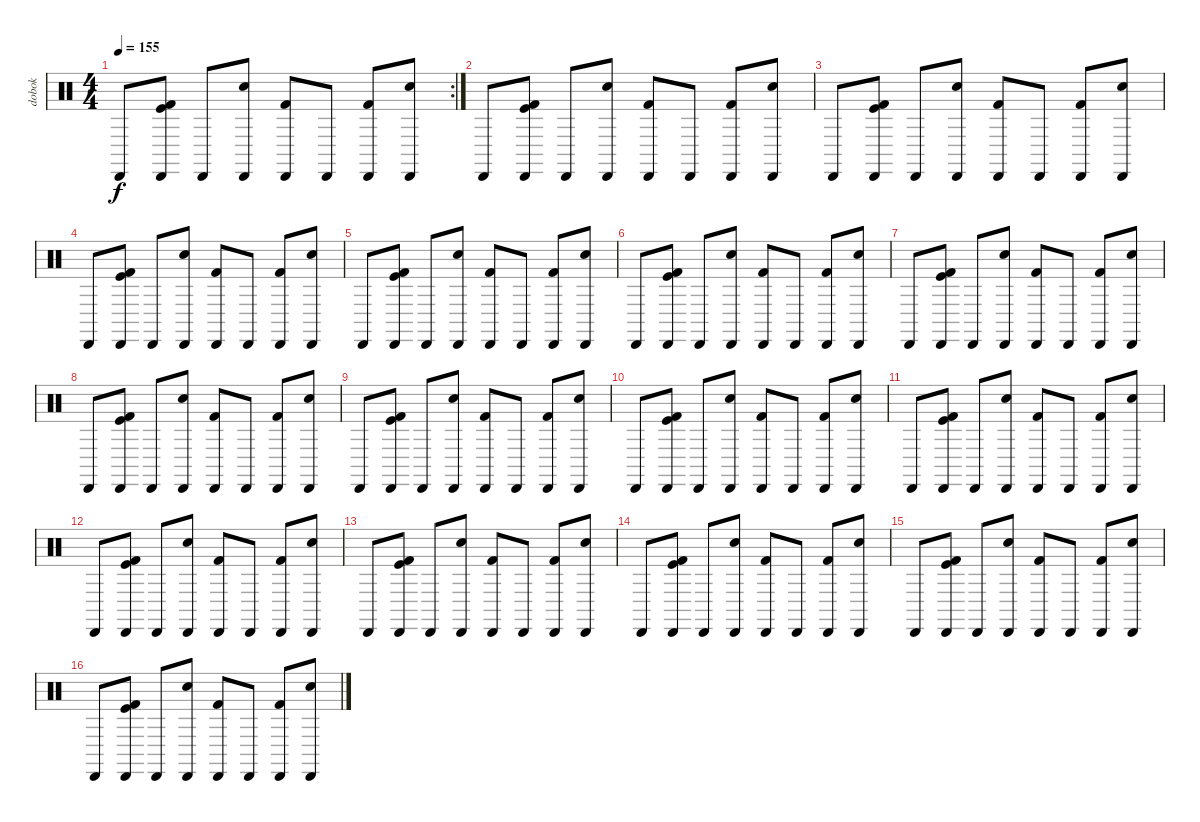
\track ("dobok" "dobok") {instrument percussion}
\staff {score}
\articulation defaults
\rc 2
\ts (4 4)
\tempo 155
\clef neutral
\ks c "Cabasa (hit)".8{dy f}
("Cabasa (hit)" "Kick (hit) 2" "Kick (hit)").8 "Cabasa (hit)".8 ("Cabasa (hit)" "Electric Snare (hit)").8 ("Cabasa (hit)" "Kick (hit) 2").8 "Cabasa (hit)".8 ("Cabasa (hit)" "Kick (hit) 2").8 ("Cabasa (hit)" "Electric Snare (hit)").8 |
"Cabasa (hit)".8 ("Cabasa (hit)" "Kick (hit) 2" "Kick (hit)").8 "Cabasa (hit)".8 ("Cabasa (hit)" "Electric Snare (hit)").8 ("Cabasa (hit)" "Kick (hit) 2").8 "Cabasa (hit)".8 ("Cabasa (hit)" "Kick (hit) 2").8 ("Cabasa (hit)" "Electric Snare (hit)").8 |
"Cabasa (hit)".8 ("Cabasa (hit)" "Kick (hit) 2" "Kick (hit)").8 "Cabasa (hit)".8 ("Cabasa (hit)" "Electric Snare (hit)").8 ("Cabasa (hit)" "Kick (hit) 2").8 "Cabasa (hit)".8 ("Cabasa (hit)" "Kick (hit) 2").8 ("Cabasa (hit)" "Electric Snare (hit)").8 |
"Cabasa (hit)".8 ("Cabasa (hit)" "Kick (hit) 2" "Kick (hit)").8 "Cabasa (hit)".8 ("Cabasa (hit)" "Electric Snare (hit)").8 ("Cabasa (hit)" "Kick (hit) 2").8 "Cabasa (hit)".8 ("Cabasa (hit)" "Kick (hit) 2").8 ("Cabasa (hit)" "Electric Snare (hit)").8 |
"Cabasa (hit)".8 ("Cabasa (hit)" "Kick (hit) 2" "Kick (hit)").8 "Cabasa (hit)".8 ("Cabasa (hit)" "Electric Snare (hit)").8 ("Cabasa (hit)" "Kick (hit) 2").8 "Cabasa (hit)".8 ("Cabasa (hit)" "Kick (hit) 2").8 ("Cabasa (hit)" "Electric Snare (hit)").8 |
"Cabasa (hit)".8 ("Cabasa (hit)" "Kick (hit) 2" "Kick (hit)").8 "Cabasa (hit)".8 ("Cabasa (hit)" "Electric Snare (hit)").8 ("Cabasa (hit)" "Kick (hit) 2").8 "Cabasa (hit)".8 ("Cabasa (hit)" "Kick (hit) 2").8 ("Cabasa (hit)" "Electric Snare (hit)").8 |
"Cabasa (hit)".8 ("Cabasa (hit)" "Kick (hit) 2" "Kick (hit)").8 "Cabasa (hit)".8 ("Cabasa (hit)" "Electric Snare (hit)").8 ("Cabasa (hit)" "Kick (hit) 2").8 "Cabasa (hit)".8 ("Cabasa (hit)" "Kick (hit) 2").8 ("Cabasa (hit)" "Electric Snare (hit)").8 |
"Cabasa (hit)".8 ("Cabasa (hit)" "Kick (hit) 2" "Kick (hit)").8 "Cabasa (hit)".8 ("Cabasa (hit)" "Electric Snare (hit)").8 ("Cabasa (hit)" "Kick (hit) 2").8 "Cabasa (hit)".8 ("Cabasa (hit)" "Kick (hit) 2").8 ("Cabasa (hit)" "Electric Snare (hit)").8 |
"Cabasa (hit)".8 ("Cabasa (hit)" "Kick (hit) 2" "Kick (hit)").8 "Cabasa (hit)".8 ("Cabasa (hit)" "Electric Snare (hit)").8 ("Cabasa (hit)" "Kick (hit) 2").8 "Cabasa (hit)".8 ("Cabasa (hit)" "Kick (hit) 2").8 ("Cabasa (hit)" "Electric Snare (hit)").8 |
"Cabasa (hit)".8 ("Cabasa (hit)" "Kick (hit) 2" "Kick (hit)").8 "Cabasa (hit)".8 ("Cabasa (hit)" "Electric Snare (hit)").8 ("Cabasa (hit)" "Kick (hit) 2").8 "Cabasa (hit)".8 ("Cabasa (hit)" "Kick (hit) 2").8 ("Cabasa (hit)" "Electric Snare (hit)").8 |
"Cabasa (hit)".8 ("Cabasa (hit)" "Kick (hit) 2" "Kick (hit)").8 "Cabasa (hit)".8 ("Cabasa (hit)" "Electric Snare (hit)").8 ("Cabasa (hit)" "Kick (hit) 2").8 "Cabasa (hit)".8 ("Cabasa (hit)" "Kick (hit) 2").8 ("Cabasa (hit)" "Electric Snare (hit)").8 |
"Cabasa (hit)".8 ("Cabasa (hit)" "Kick (hit) 2" "Kick (hit)").8 "Cabasa (hit)".8 ("Cabasa (hit)" "Electric Snare (hit)").8 ("Cabasa (hit)" "Kick (hit) 2").8 "Cabasa (hit)".8 ("Cabasa (hit)" "Kick (hit) 2").8 ("Cabasa (hit)" "Electric Snare (hit)").8 |
"Cabasa (hit)".8 ("Cabasa (hit)" "Kick (hit) 2" "Kick (hit)").8 "Cabasa (hit)".8 ("Cabasa (hit)" "Electric Snare (hit)").8 ("Cabasa (hit)" "Kick (hit) 2").8 "Cabasa (hit)".8 ("Cabasa (hit)" "Kick (hit) 2").8 ("Cabasa (hit)" "Electric Snare (hit)").8 |
"Cabasa (hit)".8 ("Cabasa (hit)" "Kick (hit) 2" "Kick (hit)").8 "Cabasa (hit)".8 ("Cabasa (hit)" "Electric Snare (hit)").8 ("Cabasa (hit)" "Kick (hit) 2").8 "Cabasa (hit)".8 ("Cabasa (hit)" "Kick (hit) 2").8 ("Cabasa (hit)" "Electric Snare (hit)").8 |
"Cabasa (hit)".8 ("Cabasa (hit)" "Kick (hit) 2" "Kick (hit)").8 "Cabasa (hit)".8 ("Cabasa (hit)" "Electric Snare (hit)").8 ("Cabasa (hit)" "Kick (hit) 2").8 "Cabasa (hit)".8 ("Cabasa (hit)" "Kick (hit) 2").8 ("Cabasa (hit)" "Electric Snare (hit)").8 |
"Cabasa (hit)".8 ("Cabasa (hit)" "Kick (hit) 2" "Kick (hit)").8 "Cabasa (hit)".8 ("Cabasa (hit)" "Electric Snare (hit)").8 ("Cabasa (hit)" "Kick (hit) 2").8 "Cabasa (hit)".8 ("Cabasa (hit)" "Kick (hit) 2").8 ("Cabasa (hit)" "Electric Snare (hit)").8
